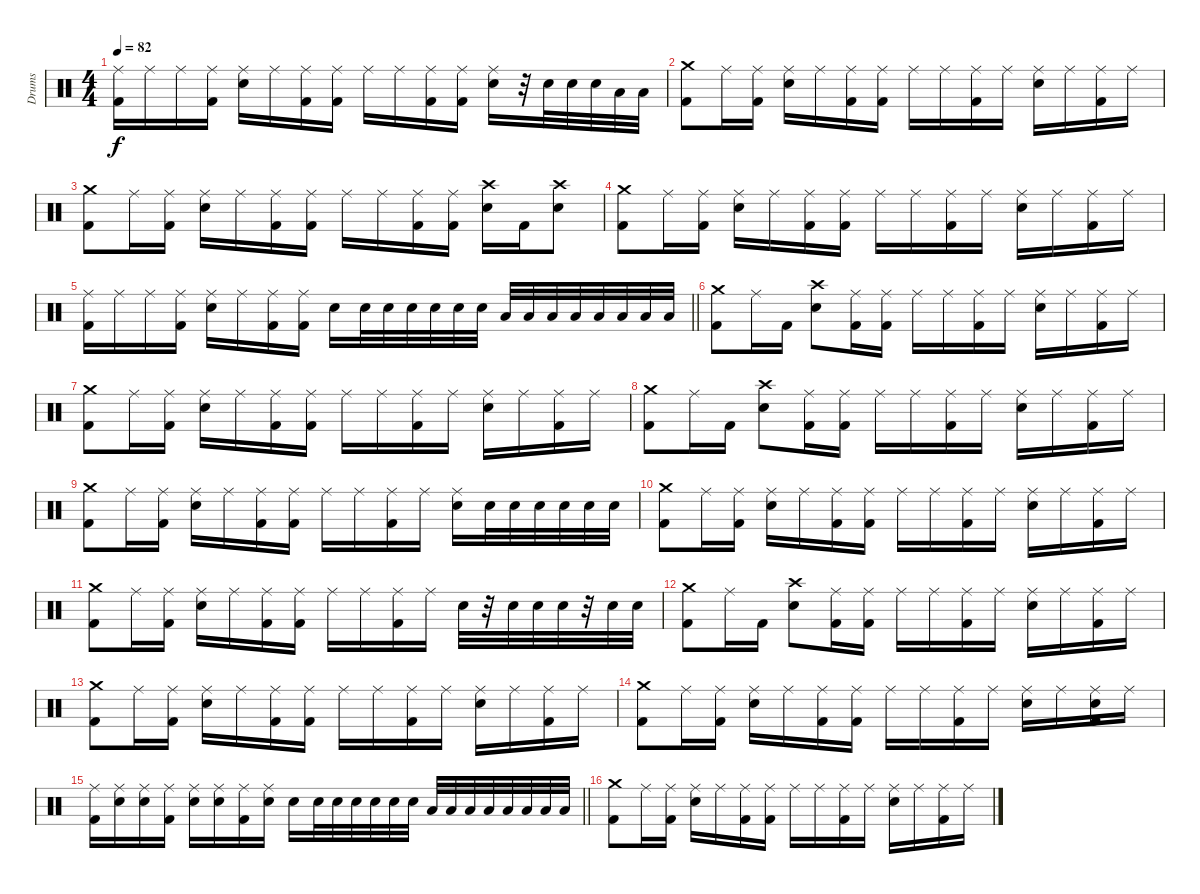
\track ("Drums" "Drums") {instrument percussion}
\staff {score}
\articulation defaults
\ts (4 4)
\tempo 82
\clef neutral
\ks c
("Ride (middle)" "Kick (hit) 2").16{dy f} "Ride (middle)".16 "Ride (middle)".16 ("Ride (middle)" "Kick (hit) 2").16 ("Ride (middle)" "Snare (hit) 2").16 "Ride (middle)".16 ("Ride (middle)" "Kick (hit) 2").16 ("Ride (middle)" "Kick (hit) 2").16 "Ride (middle)".16 "Ride (middle)".16 ("Ride (middle)" "Kick (hit) 2").16 ("Ride (middle)" "Kick (hit) 2").16 ("Ride (middle)" "Snare (hit) 2").16 r.32 "Snare (hit) 2".32 "Snare (hit) 2".32 "Snare (hit) 2".32 "Low Tom (hit)".32 "Low Tom (hit)".32 |
("Crash medium (hit)" "Kick (hit) 2").8 "Ride (middle)".16 ("Ride (middle)" "Kick (hit) 2").16 ("Ride (middle)" "Snare (hit) 2").16 "Ride (middle)".16 ("Ride (middle)" "Kick (hit) 2").16 ("Ride (middle)" "Kick (hit) 2").16 "Ride (middle)".16 "Ride (middle)".16 ("Ride (middle)" "Kick (hit) 2").16 "Ride (middle)".16 ("Ride (middle)" "Snare (hit) 2").16 "Ride (middle)".16 ("Ride (middle)" "Kick (hit) 2").16 "Ride (middle)".16 |
("Crash medium (hit)" "Kick (hit) 2").8 "Ride (middle)".16 ("Ride (middle)" "Kick (hit) 2").16 ("Ride (middle)" "Snare (hit) 2").16 "Ride (middle)".16 ("Ride (middle)" "Kick (hit) 2").16 ("Ride (middle)" "Kick (hit) 2").16 "Ride (middle)".16 "Ride (middle)".16 ("Ride (middle)" "Kick (hit) 2").16 ("Ride (middle)" "Kick (hit) 2").16 ("Crash high (hit)" "Snare (hit) 2").16 "Kick (hit) 2".16 ("Crash high (hit)" "Snare (hit) 2").8 |
("Crash medium (hit)" "Kick (hit) 2").8 "Ride (middle)".16 ("Ride (middle)" "Kick (hit) 2").16 ("Ride (middle)" "Snare (hit) 2").16 "Ride (middle)".16 ("Ride (middle)" "Kick (hit) 2").16 ("Ride (middle)" "Kick (hit) 2").16 "Ride (middle)".16 "Ride (middle)".16 ("Ride (middle)" "Kick (hit) 2").16 "Ride (middle)".16 ("Ride (middle)" "Snare (hit) 2").16 "Ride (middle)".16 ("Ride (middle)" "Kick (hit) 2").16 "Ride (middle)".16 |
\barLineRight lightlight
("Ride (middle)" "Kick (hit) 2").16 "Ride (middle)".16 "Ride (middle)".16 ("Ride (middle)" "Kick (hit) 2").16 ("Ride (middle)" "Snare (hit) 2").16 "Ride (middle)".16 ("Ride (middle)" "Kick (hit) 2").16 ("Ride (middle)" "Kick (hit) 2").16 "Snare (hit) 2".16 "Snare (hit) 2".32 "Snare (hit) 2".32 "Snare (hit) 2".32 "Snare (hit) 2".32 "Snare (hit) 2".32 "Snare (hit) 2".32 "Low Tom (hit)".32 "Low Tom (hit)".32 "Low Tom (hit)".32 "Low Tom (hit)".32 "Low Floor Tom (hit)".32 "Low Floor Tom (hit)".32 "Low Floor Tom (hit)".32 "Low Floor Tom (hit)".32 |
("Crash medium (hit)" "Kick (hit) 2").8 "Ride (middle)".16 "Kick (hit) 2".16 ("Crash high (hit)" "Snare (hit) 2").8 ("Ride (middle)" "Kick (hit) 2").16 ("Ride (middle)" "Kick (hit) 2").16 "Ride (middle)".16 "Ride (middle)".16 ("Ride (middle)" "Kick (hit) 2").16 "Ride (middle)".16 ("Ride (middle)" "Snare (hit) 2").16 "Ride (middle)".16 ("Ride (middle)" "Kick (hit) 2").16 "Ride (middle)".16 |
("Crash medium (hit)" "Kick (hit) 2").8 "Ride (middle)".16 ("Ride (middle)" "Kick (hit) 2").16 ("Ride (middle)" "Snare (hit) 2").16 "Ride (middle)".16 ("Ride (middle)" "Kick (hit) 2").16 ("Ride (middle)" "Kick (hit) 2").16 "Ride (middle)".16 "Ride (middle)".16 ("Ride (middle)" "Kick (hit) 2").16 "Ride (middle)".16 ("Ride (middle)" "Snare (hit) 2").16 "Ride (middle)".16 ("Ride (middle)" "Kick (hit) 2").16 "Ride (middle)".16 |
("Crash medium (hit)" "Kick (hit) 2").8 "Ride (middle)".16 "Kick (hit) 2".16 ("Crash high (hit)" "Snare (hit) 2").8 ("Ride (middle)" "Kick (hit) 2").16 ("Ride (middle)" "Kick (hit) 2").16 "Ride (middle)".16 "Ride (middle)".16 ("Ride (middle)" "Kick (hit) 2").16 "Ride (middle)".16 ("Ride (middle)" "Snare (hit) 2").16 "Ride (middle)".16 ("Ride (middle)" "Kick (hit) 2").16 "Ride (middle)".16 |
("Crash medium (hit)" "Kick (hit) 2").8 "Ride (middle)".16 ("Ride (middle)" "Kick (hit) 2").16 ("Ride (middle)" "Snare (hit) 2").16 "Ride (middle)".16 ("Ride (middle)" "Kick (hit) 2").16 ("Ride (middle)" "Kick (hit) 2").16 "Ride (middle)".16 "Ride (middle)".16 ("Ride (middle)" "Kick (hit) 2").16 "Ride (middle)".16 ("Ride (middle)" "Snare (hit) 2").16 "Snare (hit) 2".32 "Snare (hit) 2".32 "Snare (hit) 2".32 "Snare (hit) 2".32 "Snare (hit) 2".32 "Snare (hit) 2".32 |
("Crash medium (hit)" "Kick (hit) 2").8 "Ride (middle)".16 ("Ride (middle)" "Kick (hit) 2").16 ("Ride (middle)" "Snare (hit) 2").16 "Ride (middle)".16 ("Ride (middle)" "Kick (hit) 2").16 ("Ride (middle)" "Kick (hit) 2").16 "Ride (middle)".16 "Ride (middle)".16 ("Ride (middle)" "Kick (hit) 2").16 "Ride (middle)".16 ("Ride (middle)" "Snare (hit) 2").16 "Ride (middle)".16 ("Ride (middle)" "Kick (hit) 2").16 "Ride (middle)".16 |
("Crash medium (hit)" "Kick (hit) 2").8 "Ride (middle)".16 ("Ride (middle)" "Kick (hit) 2").16 ("Ride (middle)" "Snare (hit) 2").16 "Ride (middle)".16 ("Ride (middle)" "Kick (hit) 2").16 ("Ride (middle)" "Kick (hit) 2").16 "Ride (middle)".16 "Ride (middle)".16 ("Ride (middle)" "Kick (hit) 2").16 "Ride (middle)".16 "Snare (hit) 2".32 r.32 "Snare (hit) 2".32 "Snare (hit) 2".32 "Snare (hit) 2".32 r.32 "Snare (hit) 2".32 "Snare (hit) 2".32 |
("Crash medium (hit)" "Kick (hit) 2").8 "Ride (middle)".16 "Kick (hit) 2".16 ("Crash high (hit)" "Snare (hit) 2").8 ("Ride (middle)" "Kick (hit) 2").16 ("Ride (middle)" "Kick (hit) 2").16 "Ride (middle)".16 "Ride (middle)".16 ("Ride (middle)" "Kick (hit) 2").16 "Ride (middle)".16 ("Ride (middle)" "Snare (hit) 2").16 "Ride (middle)".16 ("Ride (middle)" "Kick (hit) 2").16 "Ride (middle)".16 |
("Crash medium (hit)" "Kick (hit) 2").8 "Ride (middle)".16 ("Ride (middle)" "Kick (hit) 2").16 ("Ride (middle)" "Snare (hit) 2").16 "Ride (middle)".16 ("Ride (middle)" "Kick (hit) 2").16 ("Ride (middle)" "Kick (hit) 2").16 "Ride (middle)".16 "Ride (middle)".16 ("Ride (middle)" "Kick (hit) 2").16 "Ride (middle)".16 ("Ride (middle)" "Snare (hit) 2").16 "Ride (middle)".16 ("Ride (middle)" "Kick (hit) 2").16 "Ride (middle)".16 |
("Crash medium (hit)" "Kick (hit) 2").8 "Ride (middle)".16 ("Ride (middle)" "Kick (hit) 2").16 ("Ride (middle)" "Snare (hit) 2").16 "Ride (middle)".16 ("Ride (middle)" "Kick (hit) 2").16 ("Ride (middle)" "Kick (hit) 2").16 "Ride (middle)".16 "Ride (middle)".16 ("Ride (middle)" "Kick (hit) 2").16 "Ride (middle)".16 ("Ride (middle)" "Snare (hit) 2").16 "Ride (middle)".16 ("Ride (middle)" "Snare (hit) 2" "Kick (hit) 2").16 "Ride (middle)".16 |
\barLineRight lightlight
("Ride (middle)" "Kick (hit) 2").16 ("Ride (middle)" "Snare (hit) 2").16 ("Ride (middle)" "Snare (hit) 2").16 ("Ride (middle)" "Kick (hit) 2").16 ("Ride (middle)" "Snare (hit) 2").16 ("Ride (middle)" "Snare (hit) 2").16 ("Ride (middle)" "Kick (hit) 2").16 ("Ride (middle)" "Snare (hit) 2").16 "Snare (hit) 2".16 "Snare (hit) 2".32 "Snare (hit) 2".32 "Snare (hit) 2".32 "Snare (hit) 2".32 "Snare (hit) 2".32 "Snare (hit) 2".32 "Low Tom (hit)".32 "Low Tom (hit)".32 "Low Tom (hit)".32 "Low Tom (hit)".32 "Low Floor Tom (hit)".32 "Low Floor Tom (hit)".32 "Low Floor Tom (hit)".32 "Low Floor Tom (hit)".32 |
("Crash medium (hit)" "Kick (hit) 2").8 "Ride (middle)".16 ("Ride (middle)" "Kick (hit) 2").16 ("Ride (middle)" "Snare (hit) 2").16 "Ride (middle)".16 ("Ride (middle)" "Kick (hit) 2").16 ("Ride (middle)" "Kick (hit) 2").16 "Ride (middle)".16 "Ride (middle)".16 ("Ride (middle)" "Kick (hit) 2").16 "Ride (middle)".16 ("Ride (middle)" "Snare (hit) 2").16 "Ride (middle)".16 ("Ride (middle)" "Kick (hit) 2").16 "Ride (middle)".16
